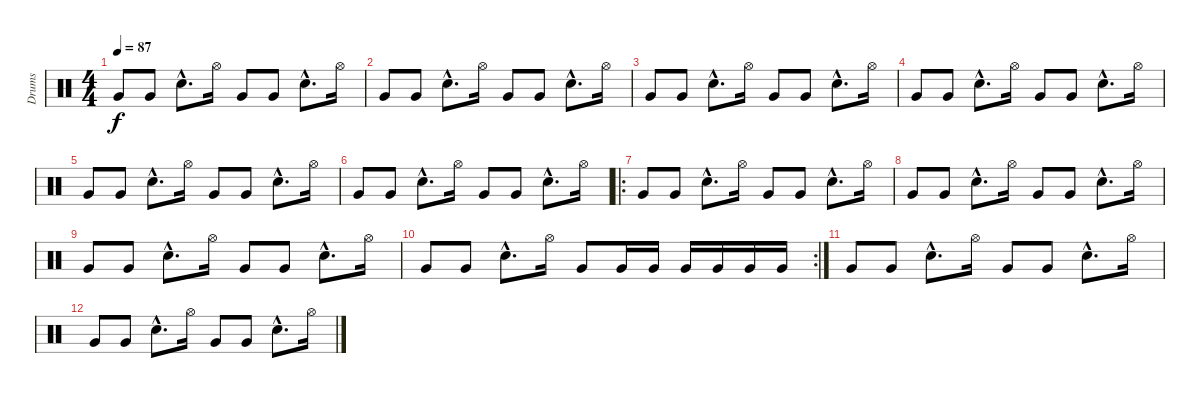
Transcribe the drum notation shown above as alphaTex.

\track ("Drums" "Drums") {instrument percussion}
\staff {score}
\articulation defaults
\ts (4 4)
\tempo 87
\clef neutral
\ks c "Very Low Tom (hit)".8{dy f} "Very Low Tom (hit)".8 "Snare (hit) 2"{hac}.8{d} "Hi-Hat (open)".16 "Very Low Tom (hit)".8 "Very Low Tom (hit)".8 "Snare (hit) 2"{hac}.8{d} "Hi-Hat (open)".16
|
"Very Low Tom (hit)".8 "Very Low Tom (hit)".8 "Snare (hit) 2"{hac}.8{d} "Hi-Hat (open)".16 "Very Low Tom (hit)".8 "Very Low Tom (hit)".8 "Snare (hit) 2"{hac}.8{d} "Hi-Hat (open)".16 |
"Very Low Tom (hit)".8 "Very Low Tom (hit)".8 "Snare (hit) 2"{hac}.8{d} "Hi-Hat (open)".16 "Very Low Tom (hit)".8 "Very Low Tom (hit)".8 "Snare (hit) 2"{hac}.8{d} "Hi-Hat (open)".16 |
"Very Low Tom (hit)".8 "Very Low Tom (hit)".8 "Snare (hit) 2"{hac}.8{d} "Hi-Hat (open)".16 "Very Low Tom (hit)".8 "Very Low Tom (hit)".8 "Snare (hit) 2"{hac}.8{d} "Hi-Hat (open)".16 |
"Very Low Tom (hit)".8 "Very Low Tom (hit)".8 "Snare (hit) 2"{hac}.8{d} "Hi-Hat (open)".16 "Very Low Tom (hit)".8 "Very Low Tom (hit)".8 "Snare (hit) 2"{hac}.8{d} "Hi-Hat (open)".16 |
"Very Low Tom (hit)".8 "Very Low Tom (hit)".8 "Snare (hit) 2"{hac}.8{d} "Hi-Hat (open)".16 "Very Low Tom (hit)".8 "Very Low Tom (hit)".8 "Snare (hit) 2"{hac}.8{d} "Hi-Hat (open)".16 |
\ro "Very Low Tom (hit)".8 "Very Low Tom (hit)".8 "Snare (hit) 2"{hac}.8{d} "Hi-Hat (open)".16 "Very Low Tom (hit)".8 "Very Low Tom (hit)".8 "Snare (hit) 2"{hac}.8{d} "Hi-Hat (open)".16
|
"Very Low Tom (hit)".8 "Very Low Tom (hit)".8 "Snare (hit) 2"{hac}.8{d} "Hi-Hat (open)".16 "Very Low Tom (hit)".8 "Very Low Tom (hit)".8 "Snare (hit) 2"{hac}.8{d} "Hi-Hat (open)".16 |
"Very Low Tom (hit)".8 "Very Low Tom (hit)".8 "Snare (hit) 2"{hac}.8{d} "Hi-Hat (open)".16 "Very Low Tom (hit)".8 "Very Low Tom (hit)".8 "Snare (hit) 2"{hac}.8{d} "Hi-Hat (open)".16 |
\rc 2 "Very Low Tom (hit)".8 "Very Low Tom (hit)".8 "Snare (hit) 2"{hac}.8{d} "Hi-Hat (open)".16 "Very Low Tom (hit)".8 "Very Low Tom (hit)".16 "Very Low Tom (hit)".16 "Very Low Tom (hit)".16 "Very Low Tom (hit)".16 "Very Low Tom (hit)".16 "Very Low Tom (hit)".16
|
"Very Low Tom (hit)".8{volume 0} "Very Low Tom (hit)".8 "Snare (hit) 2"{hac}.8{d} "Hi-Hat (open)".16 "Very Low Tom (hit)".8 "Very Low Tom (hit)".8 "Snare (hit) 2"{hac}.8{d} "Hi-Hat (open)".16 |
"Very Low Tom (hit)".8 "Very Low Tom (hit)".8 "Snare (hit) 2"{hac}.8{d} "Hi-Hat (open)".16 "Very Low Tom (hit)".8 "Very Low Tom (hit)".8 "Snare (hit) 2"{hac}.8{d} "Hi-Hat (open)".16
